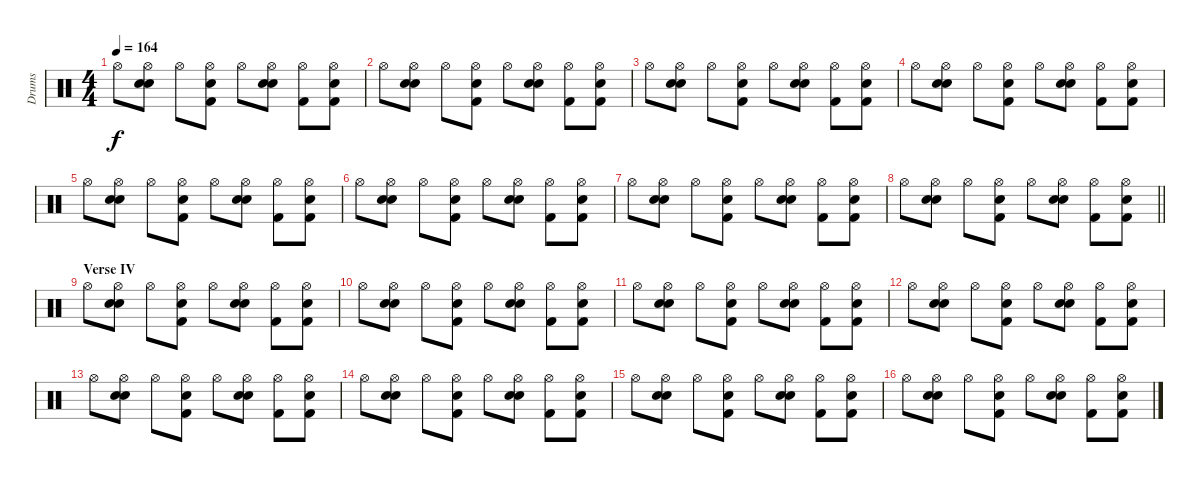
\track ("Drums" "Drums") {instrument percussion}
\staff {score}
\articulation defaults
\ts (4 4)
\tempo 164
\clef neutral
\ks c "Hi-Hat (open)".8{dy f}
("Snare (hit) 2" "Hi-Hat (open)" "Hand Clap (hit)").8 "Hi-Hat (open)".8 ("Kick (hit) 2" "Hi-Hat (open)" "Hand Clap (hit)").8 "Hi-Hat (open)".8 ("Snare (hit) 2" "Hi-Hat (open)" "Hand Clap (hit)").8 ("Kick (hit) 2" "Hi-Hat (open)").8 ("Kick (hit) 2" "Hi-Hat (open)" "Hand Clap (hit)").8 |
"Hi-Hat (open)".8 ("Snare (hit) 2" "Hi-Hat (open)" "Hand Clap (hit)").8 "Hi-Hat (open)".8 ("Kick (hit) 2" "Hi-Hat (open)" "Hand Clap (hit)").8 "Hi-Hat (open)".8 ("Snare (hit) 2" "Hi-Hat (open)" "Hand Clap (hit)").8 ("Kick (hit) 2" "Hi-Hat (open)").8 ("Kick (hit) 2" "Hi-Hat (open)" "Hand Clap (hit)").8 |
"Hi-Hat (open)".8 ("Snare (hit) 2" "Hi-Hat (open)" "Hand Clap (hit)").8 "Hi-Hat (open)".8 ("Kick (hit) 2" "Hi-Hat (open)" "Hand Clap (hit)").8 "Hi-Hat (open)".8 ("Snare (hit) 2" "Hi-Hat (open)" "Hand Clap (hit)").8 ("Kick (hit) 2" "Hi-Hat (open)").8 ("Kick (hit) 2" "Hi-Hat (open)" "Hand Clap (hit)").8 |
"Hi-Hat (open)".8 ("Snare (hit) 2" "Hi-Hat (open)" "Hand Clap (hit)").8 "Hi-Hat (open)".8 ("Kick (hit) 2" "Hi-Hat (open)" "Hand Clap (hit)").8 "Hi-Hat (open)".8 ("Snare (hit) 2" "Hi-Hat (open)" "Hand Clap (hit)").8 ("Kick (hit) 2" "Hi-Hat (open)").8 ("Kick (hit) 2" "Hi-Hat (open)" "Hand Clap (hit)").8 |
"Hi-Hat (open)".8 ("Snare (hit) 2" "Hi-Hat (open)" "Hand Clap (hit)").8 "Hi-Hat (open)".8 ("Kick (hit) 2" "Hi-Hat (open)" "Hand Clap (hit)").8 "Hi-Hat (open)".8 ("Snare (hit) 2" "Hi-Hat (open)" "Hand Clap (hit)").8 ("Kick (hit) 2" "Hi-Hat (open)").8 ("Kick (hit) 2" "Hi-Hat (open)" "Hand Clap (hit)").8 |
"Hi-Hat (open)".8 ("Snare (hit) 2" "Hi-Hat (open)" "Hand Clap (hit)").8 "Hi-Hat (open)".8 ("Kick (hit) 2" "Hi-Hat (open)" "Hand Clap (hit)").8 "Hi-Hat (open)".8 ("Snare (hit) 2" "Hi-Hat (open)" "Hand Clap (hit)").8 ("Kick (hit) 2" "Hi-Hat (open)").8 ("Kick (hit) 2" "Hi-Hat (open)" "Hand Clap (hit)").8 |
"Hi-Hat (open)".8 ("Snare (hit) 2" "Hi-Hat (open)" "Hand Clap (hit)").8 "Hi-Hat (open)".8 ("Kick (hit) 2" "Hi-Hat (open)" "Hand Clap (hit)").8 "Hi-Hat (open)".8 ("Snare (hit) 2" "Hi-Hat (open)" "Hand Clap (hit)").8 ("Kick (hit) 2" "Hi-Hat (open)").8 ("Kick (hit) 2" "Hi-Hat (open)" "Hand Clap (hit)").8 |
\barLineRight lightlight "Hi-Hat (open)".8
("Snare (hit) 2" "Hi-Hat (open)" "Hand Clap (hit)").8 "Hi-Hat (open)".8 ("Kick (hit) 2" "Hi-Hat (open)" "Hand Clap (hit)").8 "Hi-Hat (open)".8 ("Snare (hit) 2" "Hi-Hat (open)" "Hand Clap (hit)").8 ("Kick (hit) 2" "Hi-Hat (open)").8 ("Kick (hit) 2" "Hi-Hat (open)" "Hand Clap (hit)").8 |
\section ("" "Verse IV")
"Hi-Hat (open)".8 ("Snare (hit) 2" "Hi-Hat (open)" "Hand Clap (hit)").8 "Hi-Hat (open)".8 ("Kick (hit) 2" "Hi-Hat (open)" "Hand Clap (hit)").8 "Hi-Hat (open)".8 ("Snare (hit) 2" "Hi-Hat (open)" "Hand Clap (hit)").8 ("Kick (hit) 2" "Hi-Hat (open)").8 ("Kick (hit) 2" "Hi-Hat (open)" "Hand Clap (hit)").8 |
"Hi-Hat (open)".8 ("Snare (hit) 2" "Hi-Hat (open)" "Hand Clap (hit)").8 "Hi-Hat (open)".8 ("Kick (hit) 2" "Hi-Hat (open)" "Hand Clap (hit)").8 "Hi-Hat (open)".8 ("Snare (hit) 2" "Hi-Hat (open)" "Hand Clap (hit)").8 ("Kick (hit) 2" "Hi-Hat (open)").8 ("Kick (hit) 2" "Hi-Hat (open)" "Hand Clap (hit)").8 |
"Hi-Hat (open)".8 ("Snare (hit) 2" "Hi-Hat (open)" "Hand Clap (hit)").8 "Hi-Hat (open)".8 ("Kick (hit) 2" "Hi-Hat (open)" "Hand Clap (hit)").8 "Hi-Hat (open)".8 ("Snare (hit) 2" "Hi-Hat (open)" "Hand Clap (hit)").8 ("Kick (hit) 2" "Hi-Hat (open)").8 ("Kick (hit) 2" "Hi-Hat (open)" "Hand Clap (hit)").8 |
"Hi-Hat (open)".8 ("Snare (hit) 2" "Hi-Hat (open)" "Hand Clap (hit)").8 "Hi-Hat (open)".8 ("Kick (hit) 2" "Hi-Hat (open)" "Hand Clap (hit)").8 "Hi-Hat (open)".8 ("Snare (hit) 2" "Hi-Hat (open)" "Hand Clap (hit)").8 ("Kick (hit) 2" "Hi-Hat (open)").8 ("Kick (hit) 2" "Hi-Hat (open)" "Hand Clap (hit)").8 |
"Hi-Hat (open)".8 ("Snare (hit) 2" "Hi-Hat (open)" "Hand Clap (hit)").8 "Hi-Hat (open)".8 ("Kick (hit) 2" "Hi-Hat (open)" "Hand Clap (hit)").8 "Hi-Hat (open)".8 ("Snare (hit) 2" "Hi-Hat (open)" "Hand Clap (hit)").8 ("Kick (hit) 2" "Hi-Hat (open)").8 ("Kick (hit) 2" "Hi-Hat (open)" "Hand Clap (hit)").8 |
"Hi-Hat (open)".8 ("Snare (hit) 2" "Hi-Hat (open)" "Hand Clap (hit)").8 "Hi-Hat (open)".8 ("Kick (hit) 2" "Hi-Hat (open)" "Hand Clap (hit)").8 "Hi-Hat (open)".8 ("Snare (hit) 2" "Hi-Hat (open)" "Hand Clap (hit)").8 ("Kick (hit) 2" "Hi-Hat (open)").8 ("Kick (hit) 2" "Hi-Hat (open)" "Hand Clap (hit)").8 |
"Hi-Hat (open)".8 ("Snare (hit) 2" "Hi-Hat (open)" "Hand Clap (hit)").8 "Hi-Hat (open)".8 ("Kick (hit) 2" "Hi-Hat (open)" "Hand Clap (hit)").8 "Hi-Hat (open)".8 ("Snare (hit) 2" "Hi-Hat (open)" "Hand Clap (hit)").8 ("Kick (hit) 2" "Hi-Hat (open)").8 ("Kick (hit) 2" "Hi-Hat (open)" "Hand Clap (hit)").8 |
"Hi-Hat (open)".8 ("Snare (hit) 2" "Hi-Hat (open)" "Hand Clap (hit)").8 "Hi-Hat (open)".8 ("Kick (hit) 2" "Hi-Hat (open)" "Hand Clap (hit)").8 "Hi-Hat (open)".8 ("Snare (hit) 2" "Hi-Hat (open)" "Hand Clap (hit)").8 ("Kick (hit) 2" "Hi-Hat (open)").8 ("Kick (hit) 2" "Hi-Hat (open)" "Hand Clap (hit)").8
